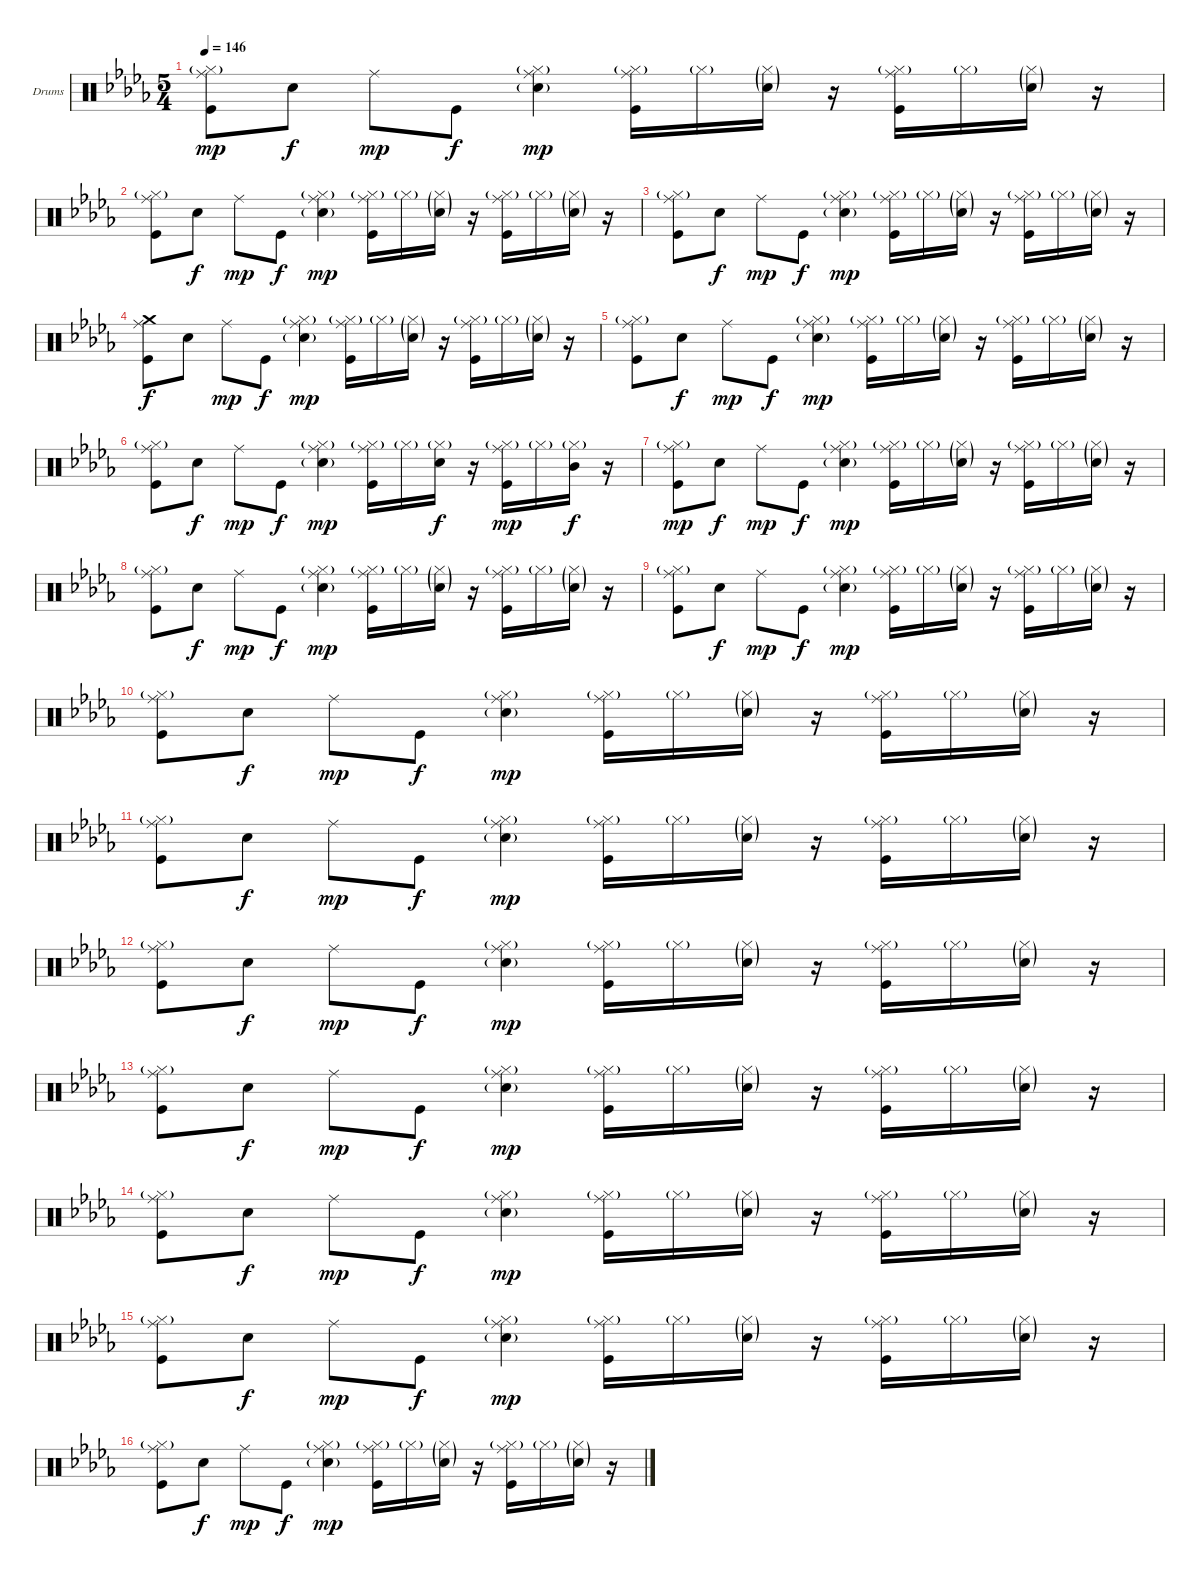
\bracketExtendMode groupsimilarinstruments
\firstSystemTrackNameOrientation horizontal
\otherSystemsTrackNameOrientation horizontal
\track ("Drumkit" "Drums") {instrument percussion}
\staff {score}
\articulation defaults
\ts (5 4)
\tempo 146
\clef neutral
\ks db
("Hi-Hat (closed)"{g} "Ride (middle)" "Kick (hit)").8{dy mp} "Snare (hit) 2".8{dy f} "Ride (middle)".8{dy mp} "Kick (hit)".8{dy f} ("Hi-Hat (closed)"{g} "Ride (middle)" "Snare (hit) 2"{g}).4{dy mp} ("Hi-Hat (closed)"{g} "Ride (middle)" "Kick (hit)").16 "Hi-Hat (closed)"{g}.16 ("Hi-Hat (closed)"{g} "Snare (hit) 2"{g}).16 r.16 ("Hi-Hat (closed)"{g} "Ride (middle)" "Kick (hit)").16 "Hi-Hat (closed)"{g}.16 ("Hi-Hat (closed)"{g} "Snare (hit) 2"{g}).16 r.16 |
("Hi-Hat (closed)"{g} "Ride (middle)" "Kick (hit)").8 "Snare (hit) 2".8{dy f} "Ride (middle)".8{dy mp} "Kick (hit)".8{dy f} ("Hi-Hat (closed)"{g} "Ride (middle)" "Snare (hit) 2"{g}).4{dy mp} ("Hi-Hat (closed)"{g} "Ride (middle)" "Kick (hit)").16 "Hi-Hat (closed)"{g}.16 ("Hi-Hat (closed)"{g} "Snare (hit) 2"{g}).16 r.16 ("Hi-Hat (closed)"{g} "Ride (middle)" "Kick (hit)").16 "Hi-Hat (closed)"{g}.16 ("Hi-Hat (closed)"{g} "Snare (hit) 2"{g}).16 r.16 |
("Hi-Hat (closed)"{g} "Ride (middle)" "Kick (hit)").8 "Snare (hit) 2".8{dy f} "Ride (middle)".8{dy mp} "Kick (hit)".8{dy f} ("Hi-Hat (closed)"{g} "Ride (middle)" "Snare (hit) 2"{g}).4{dy mp} ("Hi-Hat (closed)"{g} "Ride (middle)" "Kick (hit)").16 "Hi-Hat (closed)"{g}.16 ("Hi-Hat (closed)"{g} "Snare (hit) 2"{g}).16 r.16 ("Hi-Hat (closed)"{g} "Ride (middle)" "Kick (hit)").16 "Hi-Hat (closed)"{g}.16 ("Hi-Hat (closed)"{g} "Snare (hit) 2"{g}).16 r.16 |
("Ride (middle)" "Kick (hit)" "Crash medium (hit)").8{dy f} "Snare (hit) 2".8 "Ride (middle)".8{dy mp} "Kick (hit)".8{dy f} ("Hi-Hat (closed)"{g} "Ride (middle)" "Snare (hit) 2"{g}).4{dy mp} ("Hi-Hat (closed)"{g} "Ride (middle)" "Kick (hit)").16 "Hi-Hat (closed)"{g}.16 ("Hi-Hat (closed)"{g} "Snare (hit) 2"{g}).16 r.16 ("Hi-Hat (closed)"{g} "Ride (middle)" "Kick (hit)").16 "Hi-Hat (closed)"{g}.16 ("Hi-Hat (closed)"{g} "Snare (hit) 2"{g}).16 r.16 |
("Hi-Hat (closed)"{g} "Ride (middle)" "Kick (hit)").8 "Snare (hit) 2".8{dy f} "Ride (middle)".8{dy mp} "Kick (hit)".8{dy f} ("Hi-Hat (closed)"{g} "Ride (middle)" "Snare (hit) 2"{g}).4{dy mp} ("Hi-Hat (closed)"{g} "Ride (middle)" "Kick (hit)").16 "Hi-Hat (closed)"{g}.16 ("Hi-Hat (closed)"{g} "Snare (hit) 2"{g}).16 r.16 ("Hi-Hat (closed)"{g} "Ride (middle)" "Kick (hit)").16 "Hi-Hat (closed)"{g}.16 ("Hi-Hat (closed)"{g} "Snare (hit) 2"{g}).16 r.16 |
("Hi-Hat (closed)"{g} "Ride (middle)" "Kick (hit)").8 "Snare (hit) 2".8{dy f} "Ride (middle)".8{dy mp} "Kick (hit)".8{dy f} ("Hi-Hat (closed)"{g} "Ride (middle)" "Snare (hit) 2"{g}).4{dy mp} ("Hi-Hat (closed)"{g} "Ride (middle)" "Kick (hit)").16 "Hi-Hat (closed)"{g}.16 ("Hi-Hat (closed)"{g} "Snare (hit) 2").16{dy f} r.16 ("Hi-Hat (closed)"{g} "Ride (middle)" "Kick (hit)").16{dy mp} "Hi-Hat (closed)"{g}.16 ("Hi-Hat (closed)"{g} "Mid Tom (hit)").16{dy f} r.16 |
("Hi-Hat (closed)"{g} "Ride (middle)" "Kick (hit)").8{dy mp} "Snare (hit) 2".8{dy f} "Ride (middle)".8{dy mp} "Kick (hit)".8{dy f} ("Hi-Hat (closed)"{g} "Ride (middle)" "Snare (hit) 2"{g}).4{dy mp} ("Hi-Hat (closed)"{g} "Ride (middle)" "Kick (hit)").16 "Hi-Hat (closed)"{g}.16 ("Hi-Hat (closed)"{g} "Snare (hit) 2"{g}).16 r.16 ("Hi-Hat (closed)"{g} "Ride (middle)" "Kick (hit)").16 "Hi-Hat (closed)"{g}.16 ("Hi-Hat (closed)"{g} "Snare (hit) 2"{g}).16 r.16 |
("Hi-Hat (closed)"{g} "Ride (middle)" "Kick (hit)").8 "Snare (hit) 2".8{dy f} "Ride (middle)".8{dy mp} "Kick (hit)".8{dy f} ("Hi-Hat (closed)"{g} "Ride (middle)" "Snare (hit) 2"{g}).4{dy mp} ("Hi-Hat (closed)"{g} "Ride (middle)" "Kick (hit)").16 "Hi-Hat (closed)"{g}.16 ("Hi-Hat (closed)"{g} "Snare (hit) 2"{g}).16 r.16 ("Hi-Hat (closed)"{g} "Ride (middle)" "Kick (hit)").16 "Hi-Hat (closed)"{g}.16 ("Hi-Hat (closed)"{g} "Snare (hit) 2"{g}).16 r.16 |
("Hi-Hat (closed)"{g} "Ride (middle)" "Kick (hit)").8 "Snare (hit) 2".8{dy f} "Ride (middle)".8{dy mp} "Kick (hit)".8{dy f} ("Hi-Hat (closed)"{g} "Ride (middle)" "Snare (hit) 2"{g}).4{dy mp} ("Hi-Hat (closed)"{g} "Ride (middle)" "Kick (hit)").16 "Hi-Hat (closed)"{g}.16 ("Hi-Hat (closed)"{g} "Snare (hit) 2"{g}).16 r.16 ("Hi-Hat (closed)"{g} "Ride (middle)" "Kick (hit)").16 "Hi-Hat (closed)"{g}.16 ("Hi-Hat (closed)"{g} "Snare (hit) 2"{g}).16 r.16 |
("Hi-Hat (closed)"{g} "Ride (middle)" "Kick (hit)").8 "Snare (hit) 2".8{dy f} "Ride (middle)".8{dy mp} "Kick (hit)".8{dy f} ("Hi-Hat (closed)"{g} "Ride (middle)" "Snare (hit) 2"{g}).4{dy mp} ("Hi-Hat (closed)"{g} "Ride (middle)" "Kick (hit)").16 "Hi-Hat (closed)"{g}.16 ("Hi-Hat (closed)"{g} "Snare (hit) 2"{g}).16 r.16 ("Hi-Hat (closed)"{g} "Ride (middle)" "Kick (hit)").16 "Hi-Hat (closed)"{g}.16 ("Hi-Hat (closed)"{g} "Snare (hit) 2"{g}).16 r.16 |
("Hi-Hat (closed)"{g} "Ride (middle)" "Kick (hit)").8 "Snare (hit) 2".8{dy f} "Ride (middle)".8{dy mp} "Kick (hit)".8{dy f} ("Hi-Hat (closed)"{g} "Ride (middle)" "Snare (hit) 2"{g}).4{dy mp} ("Hi-Hat (closed)"{g} "Ride (middle)" "Kick (hit)").16 "Hi-Hat (closed)"{g}.16 ("Hi-Hat (closed)"{g} "Snare (hit) 2"{g}).16 r.16 ("Hi-Hat (closed)"{g} "Ride (middle)" "Kick (hit)").16 "Hi-Hat (closed)"{g}.16 ("Hi-Hat (closed)"{g} "Snare (hit) 2"{g}).16 r.16 |
("Hi-Hat (closed)"{g} "Ride (middle)" "Kick (hit)").8 "Snare (hit) 2".8{dy f} "Ride (middle)".8{dy mp} "Kick (hit)".8{dy f} ("Hi-Hat (closed)"{g} "Ride (middle)" "Snare (hit) 2"{g}).4{dy mp} ("Hi-Hat (closed)"{g} "Ride (middle)" "Kick (hit)").16 "Hi-Hat (closed)"{g}.16 ("Hi-Hat (closed)"{g} "Snare (hit) 2"{g}).16 r.16 ("Hi-Hat (closed)"{g} "Ride (middle)" "Kick (hit)").16 "Hi-Hat (closed)"{g}.16 ("Hi-Hat (closed)"{g} "Snare (hit) 2"{g}).16 r.16 |
("Hi-Hat (closed)"{g} "Ride (middle)" "Kick (hit)").8 "Snare (hit) 2".8{dy f} "Ride (middle)".8{dy mp} "Kick (hit)".8{dy f} ("Hi-Hat (closed)"{g} "Ride (middle)" "Snare (hit) 2"{g}).4{dy mp} ("Hi-Hat (closed)"{g} "Ride (middle)" "Kick (hit)").16 "Hi-Hat (closed)"{g}.16 ("Hi-Hat (closed)"{g} "Snare (hit) 2"{g}).16 r.16 ("Hi-Hat (closed)"{g} "Ride (middle)" "Kick (hit)").16 "Hi-Hat (closed)"{g}.16 ("Hi-Hat (closed)"{g} "Snare (hit) 2"{g}).16 r.16 |
("Hi-Hat (closed)"{g} "Ride (middle)" "Kick (hit)").8 "Snare (hit) 2".8{dy f} "Ride (middle)".8{dy mp} "Kick (hit)".8{dy f} ("Hi-Hat (closed)"{g} "Ride (middle)" "Snare (hit) 2"{g}).4{dy mp} ("Hi-Hat (closed)"{g} "Ride (middle)" "Kick (hit)").16 "Hi-Hat (closed)"{g}.16 ("Hi-Hat (closed)"{g} "Snare (hit) 2"{g}).16 r.16 ("Hi-Hat (closed)"{g} "Ride (middle)" "Kick (hit)").16 "Hi-Hat (closed)"{g}.16 ("Hi-Hat (closed)"{g} "Snare (hit) 2"{g}).16 r.16 |
("Hi-Hat (closed)"{g} "Ride (middle)" "Kick (hit)").8 "Snare (hit) 2".8{dy f} "Ride (middle)".8{dy mp} "Kick (hit)".8{dy f} ("Hi-Hat (closed)"{g} "Ride (middle)" "Snare (hit) 2"{g}).4{dy mp} ("Hi-Hat (closed)"{g} "Ride (middle)" "Kick (hit)").16 "Hi-Hat (closed)"{g}.16 ("Hi-Hat (closed)"{g} "Snare (hit) 2"{g}).16 r.16 ("Hi-Hat (closed)"{g} "Ride (middle)" "Kick (hit)").16 "Hi-Hat (closed)"{g}.16 ("Hi-Hat (closed)"{g} "Snare (hit) 2"{g}).16 r.16 |
("Hi-Hat (closed)"{g} "Ride (middle)" "Kick (hit)").8 "Snare (hit) 2".8{dy f} "Ride (middle)".8{dy mp} "Kick (hit)".8{dy f} ("Hi-Hat (closed)"{g} "Ride (middle)" "Snare (hit) 2"{g}).4{dy mp} ("Hi-Hat (closed)"{g} "Ride (middle)" "Kick (hit)").16 "Hi-Hat (closed)"{g}.16 ("Hi-Hat (closed)"{g} "Snare (hit) 2"{g}).16 r.16 ("Hi-Hat (closed)"{g} "Ride (middle)" "Kick (hit)").16 "Hi-Hat (closed)"{g}.16 ("Hi-Hat (closed)"{g} "Snare (hit) 2"{g}).16 r.16
